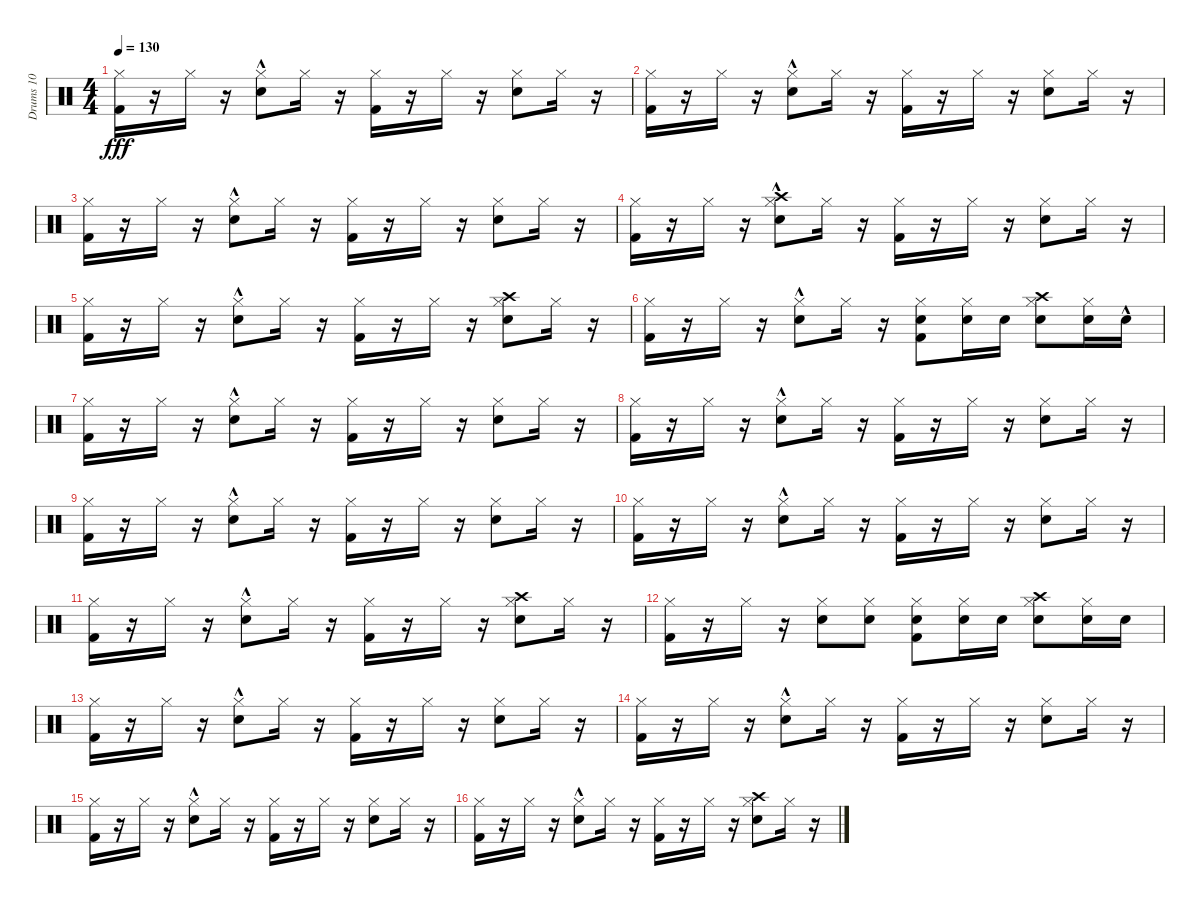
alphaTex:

\track ("Drums 10            " "Drums 10  ") {instrument percussion}
\staff {score}
\articulation defaults
\ts (4 4)
\tempo 130
\clef neutral
\ks c
("Kick (hit) 2" "Hi-Hat (closed)").16{dy fff} r.16 "Hi-Hat (closed)".16 r.16 ("Snare (hit) 2"{hac} "Hi-Hat (closed)").8 "Hi-Hat (closed)".16 r.16 ("Kick (hit) 2" "Hi-Hat (closed)").16 r.16 "Hi-Hat (closed)".16 r.16 ("Snare (hit) 2" "Hi-Hat (closed)").8 "Hi-Hat (closed)".16 r.16 |
("Kick (hit) 2" "Hi-Hat (closed)").16 r.16 "Hi-Hat (closed)".16 r.16 ("Snare (hit) 2"{hac} "Hi-Hat (closed)").8 "Hi-Hat (closed)".16 r.16 ("Kick (hit) 2" "Hi-Hat (closed)").16 r.16 "Hi-Hat (closed)".16 r.16 ("Snare (hit) 2" "Hi-Hat (closed)").8 "Hi-Hat (closed)".16 r.16 |
("Kick (hit) 2" "Hi-Hat (closed)").16 r.16 "Hi-Hat (closed)".16 r.16 ("Snare (hit) 2"{hac} "Hi-Hat (closed)").8 "Hi-Hat (closed)".16 r.16 ("Kick (hit) 2" "Hi-Hat (closed)").16 r.16 "Hi-Hat (closed)".16 r.16 ("Snare (hit) 2" "Hi-Hat (closed)").8 "Hi-Hat (closed)".16 r.16 |
("Kick (hit) 2" "Hi-Hat (closed)").16 r.16 "Hi-Hat (closed)".16 r.16 ("Snare (hit) 2"{hac} "Hi-Hat (closed)" "Crash high (hit)").8 "Hi-Hat (closed)".16 r.16 ("Kick (hit) 2" "Hi-Hat (closed)").16 r.16 "Hi-Hat (closed)".16 r.16 ("Snare (hit) 2" "Hi-Hat (closed)").8 "Hi-Hat (closed)".16 r.16 |
("Kick (hit) 2" "Hi-Hat (closed)").16 r.16 "Hi-Hat (closed)".16 r.16 ("Snare (hit) 2"{hac} "Hi-Hat (closed)").8 "Hi-Hat (closed)".16 r.16 ("Kick (hit) 2" "Hi-Hat (closed)").16 r.16 "Hi-Hat (closed)".16 r.16 ("Snare (hit) 2" "Hi-Hat (closed)" "Crash high (hit)").8 "Hi-Hat (closed)".16 r.16 |
("Kick (hit) 2" "Hi-Hat (closed)").16 r.16 "Hi-Hat (closed)".16 r.16 ("Snare (hit) 2"{hac} "Hi-Hat (closed)").8 "Hi-Hat (closed)".16 r.16 ("Kick (hit) 2" "Snare (hit) 2" "Hi-Hat (closed)").8 ("Snare (hit) 2" "Hi-Hat (closed)").16 "Snare (hit) 2".16 ("Snare (hit) 2" "Hi-Hat (closed)" "Crash high (hit)").8 ("Snare (hit) 2" "Hi-Hat (closed)").16 "Snare (hit) 2"{hac}.16 |
("Kick (hit) 2" "Hi-Hat (closed)").16 r.16 "Hi-Hat (closed)".16 r.16 ("Snare (hit) 2"{hac} "Hi-Hat (closed)").8 "Hi-Hat (closed)".16 r.16 ("Kick (hit) 2" "Hi-Hat (closed)").16 r.16 "Hi-Hat (closed)".16 r.16 ("Snare (hit) 2" "Hi-Hat (closed)").8 "Hi-Hat (closed)".16 r.16 |
("Kick (hit) 2" "Hi-Hat (closed)").16 r.16 "Hi-Hat (closed)".16 r.16 ("Snare (hit) 2"{hac} "Hi-Hat (closed)").8 "Hi-Hat (closed)".16 r.16 ("Kick (hit) 2" "Hi-Hat (closed)").16 r.16 "Hi-Hat (closed)".16 r.16 ("Snare (hit) 2" "Hi-Hat (closed)").8 "Hi-Hat (closed)".16 r.16 |
("Kick (hit) 2" "Hi-Hat (closed)").16 r.16 "Hi-Hat (closed)".16 r.16 ("Snare (hit) 2"{hac} "Hi-Hat (closed)").8 "Hi-Hat (closed)".16 r.16 ("Kick (hit) 2" "Hi-Hat (closed)").16 r.16 "Hi-Hat (closed)".16 r.16 ("Snare (hit) 2" "Hi-Hat (closed)").8 "Hi-Hat (closed)".16 r.16 |
("Kick (hit) 2" "Hi-Hat (closed)").16 r.16 "Hi-Hat (closed)".16 r.16 ("Snare (hit) 2"{hac} "Hi-Hat (closed)").8 "Hi-Hat (closed)".16 r.16 ("Kick (hit) 2" "Hi-Hat (closed)").16 r.16 "Hi-Hat (closed)".16 r.16 ("Snare (hit) 2" "Hi-Hat (closed)").8 "Hi-Hat (closed)".16 r.16 |
("Kick (hit) 2" "Hi-Hat (closed)").16 r.16 "Hi-Hat (closed)".16 r.16 ("Snare (hit) 2"{hac} "Hi-Hat (closed)").8 "Hi-Hat (closed)".16 r.16 ("Kick (hit) 2" "Hi-Hat (closed)").16 r.16 "Hi-Hat (closed)".16 r.16 ("Snare (hit) 2" "Hi-Hat (closed)" "Crash high (hit)").8{volume 16} "Hi-Hat (closed)".16{volume 15} r.16 |
("Kick (hit) 2" "Hi-Hat (closed)").16{volume 15} r.16 "Hi-Hat (closed)".16{volume 15} r.16 ("Snare (hit) 2" "Hi-Hat (closed)").8{volume 14} ("Snare (hit) 2" "Hi-Hat (closed)").8{volume 14} ("Kick (hit) 2" "Snare (hit) 2" "Hi-Hat (closed)").8{volume 13} ("Snare (hit) 2" "Hi-Hat (closed)").16{volume 13} "Snare (hit) 2".16{volume 13} ("Snare (hit) 2" "Hi-Hat (closed)" "Crash high (hit)").8{volume 12} ("Snare (hit) 2" "Hi-Hat (closed)").16{volume 12} "Snare (hit) 2".16{volume 12} |
("Kick (hit) 2" "Hi-Hat (closed)").16{volume 11} r.16 "Hi-Hat (closed)".16{volume 11} r.16 ("Snare (hit) 2"{hac} "Hi-Hat (closed)").8{volume 11} "Hi-Hat (closed)".16{volume 11} r.16 ("Kick (hit) 2" "Hi-Hat (closed)").16 r.16 "Hi-Hat (closed)".16{volume 10} r.16 ("Snare (hit) 2" "Hi-Hat (closed)").8{volume 10} "Hi-Hat (closed)".16 r.16 |
("Kick (hit) 2" "Hi-Hat (closed)").16{volume 10} r.16 "Hi-Hat (closed)".16{volume 10} r.16 ("Snare (hit) 2"{hac} "Hi-Hat (closed)").8{volume 10} "Hi-Hat (closed)".16{volume 9} r.16 ("Kick (hit) 2" "Hi-Hat (closed)").16{volume 9} r.16 "Hi-Hat (closed)".16{volume 9} r.16 ("Snare (hit) 2" "Hi-Hat (closed)").8{volume 9} "Hi-Hat (closed)".16{volume 8} r.16 |
("Kick (hit) 2" "Hi-Hat (closed)").16{volume 8} r.16 "Hi-Hat (closed)".16{volume 8} r.16 ("Snare (hit) 2"{hac} "Hi-Hat (closed)").8{volume 8} "Hi-Hat (closed)".16{volume 7} r.16 ("Kick (hit) 2" "Hi-Hat (closed)").16{volume 7} r.16 "Hi-Hat (closed)".16{volume 6} r.16 ("Snare (hit) 2" "Hi-Hat (closed)").8{volume 6} "Hi-Hat (closed)".16{volume 6} r.16 |
("Kick (hit) 2" "Hi-Hat (closed)").16{volume 5} r.16 "Hi-Hat (closed)".16{volume 5} r.16 ("Snare (hit) 2"{hac} "Hi-Hat (closed)").8{volume 4} "Hi-Hat (closed)".16{volume 4} r.16 ("Kick (hit) 2" "Hi-Hat (closed)").16{volume 4} r.16 "Hi-Hat (closed)".16{volume 4} r.16 ("Snare (hit) 2" "Hi-Hat (closed)" "Crash high (hit)").8{volume 3} "Hi-Hat (closed)".16{volume 3} r.16
